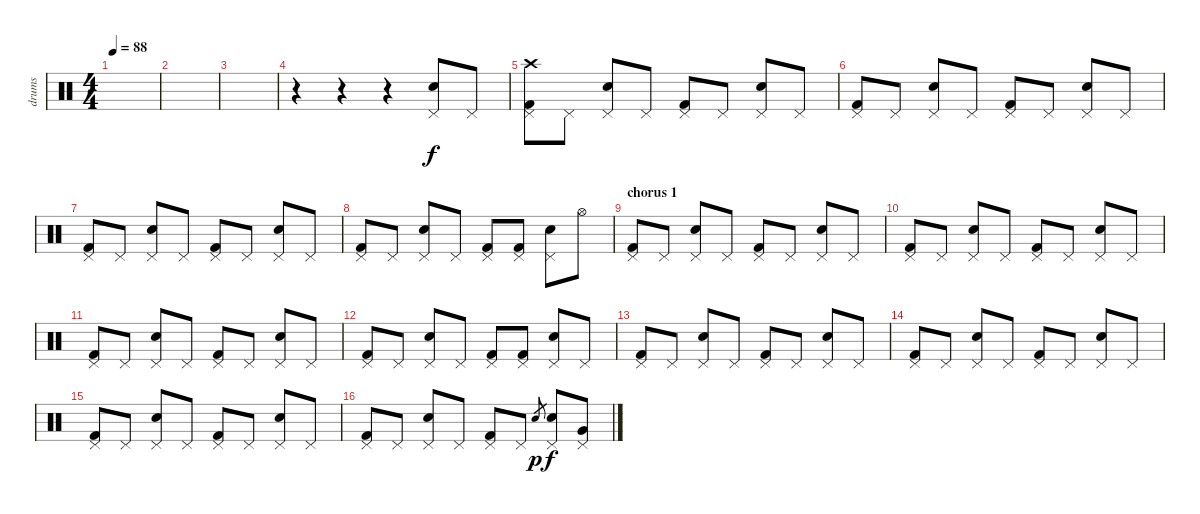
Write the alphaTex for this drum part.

\track ("drums" "drums") {instrument percussion}
\staff {score}
\articulation defaults
\ts (4 4)
\tempo 88
\clef neutral
\ks c
|
|
|
r.4 r.4 r.4 ("Electric Snare (hit)" "Pedal Hi-Hat (hit)").8 "Pedal Hi-Hat (hit)".8 |
("Kick (hit) 2" "Pedal Hi-Hat (hit)" "Crash high (hit)").8 "Pedal Hi-Hat (hit)".8 ("Electric Snare (hit)" "Pedal Hi-Hat (hit)").8 "Pedal Hi-Hat (hit)".8 ("Kick (hit) 2" "Pedal Hi-Hat (hit)").8 "Pedal Hi-Hat (hit)".8 ("Electric Snare (hit)" "Pedal Hi-Hat (hit)").8 "Pedal Hi-Hat (hit)".8 |
("Kick (hit) 2" "Pedal Hi-Hat (hit)").8 "Pedal Hi-Hat (hit)".8 ("Electric Snare (hit)" "Pedal Hi-Hat (hit)").8 "Pedal Hi-Hat (hit)".8 ("Kick (hit) 2" "Pedal Hi-Hat (hit)").8 "Pedal Hi-Hat (hit)".8 ("Electric Snare (hit)" "Pedal Hi-Hat (hit)").8 "Pedal Hi-Hat (hit)".8 |
("Kick (hit) 2" "Pedal Hi-Hat (hit)").8 "Pedal Hi-Hat (hit)".8 ("Electric Snare (hit)" "Pedal Hi-Hat (hit)").8 "Pedal Hi-Hat (hit)".8 ("Kick (hit) 2" "Pedal Hi-Hat (hit)").8 "Pedal Hi-Hat (hit)".8 ("Electric Snare (hit)" "Pedal Hi-Hat (hit)").8 "Pedal Hi-Hat (hit)".8 |
("Kick (hit) 2" "Pedal Hi-Hat (hit)").8 "Pedal Hi-Hat (hit)".8 ("Electric Snare (hit)" "Pedal Hi-Hat (hit)").8 "Pedal Hi-Hat (hit)".8 ("Kick (hit) 2" "Pedal Hi-Hat (hit)").8 ("Kick (hit) 2" "Pedal Hi-Hat (hit)").8 ("Electric Snare (hit)" "Pedal Hi-Hat (hit)").8 "Hi-Hat (open)".8 |
\section ("" "chorus 1")
("Kick (hit) 2" "Pedal Hi-Hat (hit)").8 "Pedal Hi-Hat (hit)".8 ("Electric Snare (hit)" "Pedal Hi-Hat (hit)").8 "Pedal Hi-Hat (hit)".8 ("Kick (hit) 2" "Pedal Hi-Hat (hit)").8 "Pedal Hi-Hat (hit)".8 ("Electric Snare (hit)" "Pedal Hi-Hat (hit)").8 "Pedal Hi-Hat (hit)".8 |
("Kick (hit) 2" "Pedal Hi-Hat (hit)").8 "Pedal Hi-Hat (hit)".8 ("Electric Snare (hit)" "Pedal Hi-Hat (hit)").8 "Pedal Hi-Hat (hit)".8 ("Kick (hit) 2" "Pedal Hi-Hat (hit)").8 "Pedal Hi-Hat (hit)".8 ("Electric Snare (hit)" "Pedal Hi-Hat (hit)").8 "Pedal Hi-Hat (hit)".8 |
("Kick (hit) 2" "Pedal Hi-Hat (hit)").8 "Pedal Hi-Hat (hit)".8 ("Electric Snare (hit)" "Pedal Hi-Hat (hit)").8 "Pedal Hi-Hat (hit)".8 ("Kick (hit) 2" "Pedal Hi-Hat (hit)").8 "Pedal Hi-Hat (hit)".8 ("Electric Snare (hit)" "Pedal Hi-Hat (hit)").8 "Pedal Hi-Hat (hit)".8 |
("Kick (hit) 2" "Pedal Hi-Hat (hit)").8 "Pedal Hi-Hat (hit)".8 ("Electric Snare (hit)" "Pedal Hi-Hat (hit)").8 "Pedal Hi-Hat (hit)".8 ("Kick (hit) 2" "Pedal Hi-Hat (hit)").8 ("Kick (hit) 2" "Pedal Hi-Hat (hit)").8 ("Electric Snare (hit)" "Pedal Hi-Hat (hit)").8 "Pedal Hi-Hat (hit)".8 |
("Kick (hit) 2" "Pedal Hi-Hat (hit)").8 "Pedal Hi-Hat (hit)".8 ("Electric Snare (hit)" "Pedal Hi-Hat (hit)").8 "Pedal Hi-Hat (hit)".8 ("Kick (hit) 2" "Pedal Hi-Hat (hit)").8 "Pedal Hi-Hat (hit)".8 ("Electric Snare (hit)" "Pedal Hi-Hat (hit)").8 "Pedal Hi-Hat (hit)".8 |
("Kick (hit) 2" "Pedal Hi-Hat (hit)").8 "Pedal Hi-Hat (hit)".8 ("Electric Snare (hit)" "Pedal Hi-Hat (hit)").8 "Pedal Hi-Hat (hit)".8 ("Kick (hit) 2" "Pedal Hi-Hat (hit)").8 "Pedal Hi-Hat (hit)".8 ("Electric Snare (hit)" "Pedal Hi-Hat (hit)").8 "Pedal Hi-Hat (hit)".8 |
("Kick (hit) 2" "Pedal Hi-Hat (hit)").8 "Pedal Hi-Hat (hit)".8 ("Electric Snare (hit)" "Pedal Hi-Hat (hit)").8 "Pedal Hi-Hat (hit)".8 ("Kick (hit) 2" "Pedal Hi-Hat (hit)").8 "Pedal Hi-Hat (hit)".8 ("Electric Snare (hit)" "Pedal Hi-Hat (hit)").8 "Pedal Hi-Hat (hit)".8 |
("Kick (hit) 2" "Pedal Hi-Hat (hit)").8 "Pedal Hi-Hat (hit)".8 ("Electric Snare (hit)" "Pedal Hi-Hat (hit)").8 "Pedal Hi-Hat (hit)".8 ("Kick (hit) 2" "Pedal Hi-Hat (hit)").8 "Pedal Hi-Hat (hit)".8 "Electric Snare (hit)".8{gr dy p} ("Electric Snare (hit)" "Pedal Hi-Hat (hit)").8{dy f} ("Very Low Tom (hit)" "Pedal Hi-Hat (hit)").8
